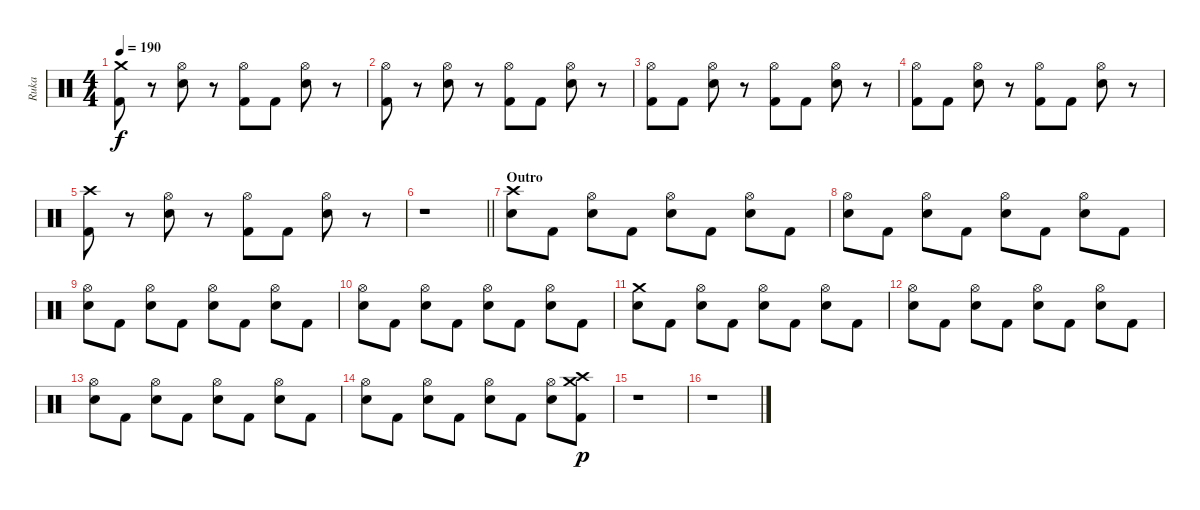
\track ("Ruka " "Ruka ") {instrument percussion}
\staff {score}
\articulation defaults
\ts (4 4)
\tempo 190
\clef neutral
\ks c
("Crash medium (hit)" "Kick (hit) 2").8{dy f} r.8 ("Hi-Hat (open)" "Electric Snare (hit)").8 r.8 ("Hi-Hat (open)" "Kick (hit) 2").8 "Kick (hit) 2".8 ("Hi-Hat (open)" "Electric Snare (hit)").8 r.8 |
("Hi-Hat (open)" "Kick (hit) 2").8 r.8 ("Hi-Hat (open)" "Electric Snare (hit)").8 r.8 ("Hi-Hat (open)" "Kick (hit) 2").8 "Kick (hit) 2".8 ("Hi-Hat (open)" "Electric Snare (hit)").8 r.8 |
("Hi-Hat (open)" "Kick (hit) 2").8 "Kick (hit) 2".8 ("Hi-Hat (open)" "Electric Snare (hit)").8 r.8 ("Hi-Hat (open)" "Kick (hit) 2").8 "Kick (hit) 2".8 ("Hi-Hat (open)" "Electric Snare (hit)").8 r.8 |
("Hi-Hat (open)" "Kick (hit) 2").8 "Kick (hit) 2".8 ("Hi-Hat (open)" "Electric Snare (hit)").8 r.8 ("Hi-Hat (open)" "Kick (hit) 2").8 "Kick (hit) 2".8 ("Hi-Hat (open)" "Electric Snare (hit)").8 r.8 |
("Crash high (hit)" "Kick (hit) 2").8 r.8 ("Hi-Hat (open)" "Electric Snare (hit)").8 r.8 ("Hi-Hat (open)" "Kick (hit) 2").8 "Kick (hit) 2".8 ("Hi-Hat (open)" "Electric Snare (hit)").8 r.8 |
\barLineRight lightlight
r.1 |
\section ("" "Outro")
("Crash high (hit)" "Electric Snare (hit)").8 "Kick (hit) 2".8 ("Hi-Hat (open)" "Electric Snare (hit)").8 "Kick (hit) 2".8 ("Hi-Hat (open)" "Electric Snare (hit)").8 "Kick (hit) 2".8 ("Hi-Hat (open)" "Electric Snare (hit)").8 "Kick (hit) 2".8 |
("Hi-Hat (open)" "Electric Snare (hit)").8 "Kick (hit) 2".8 ("Hi-Hat (open)" "Electric Snare (hit)").8 "Kick (hit) 2".8 ("Hi-Hat (open)" "Electric Snare (hit)").8 "Kick (hit) 2".8 ("Hi-Hat (open)" "Electric Snare (hit)").8 "Kick (hit) 2".8 |
("Hi-Hat (open)" "Electric Snare (hit)").8 "Kick (hit) 2".8 ("Hi-Hat (open)" "Electric Snare (hit)").8 "Kick (hit) 2".8 ("Hi-Hat (open)" "Electric Snare (hit)").8 "Kick (hit) 2".8 ("Hi-Hat (open)" "Electric Snare (hit)").8 "Kick (hit) 2".8 |
("Hi-Hat (open)" "Electric Snare (hit)").8 "Kick (hit) 2".8 ("Hi-Hat (open)" "Electric Snare (hit)").8 "Kick (hit) 2".8 ("Hi-Hat (open)" "Electric Snare (hit)").8 "Kick (hit) 2".8 ("Hi-Hat (open)" "Electric Snare (hit)").8 "Kick (hit) 2".8 |
("Crash medium (hit)" "Electric Snare (hit)").8 "Kick (hit) 2".8 ("Hi-Hat (open)" "Electric Snare (hit)").8 "Kick (hit) 2".8 ("Hi-Hat (open)" "Electric Snare (hit)").8 "Kick (hit) 2".8 ("Hi-Hat (open)" "Electric Snare (hit)").8 "Kick (hit) 2".8 |
("Hi-Hat (open)" "Electric Snare (hit)").8 "Kick (hit) 2".8 ("Hi-Hat (open)" "Electric Snare (hit)").8 "Kick (hit) 2".8 ("Hi-Hat (open)" "Electric Snare (hit)").8 "Kick (hit) 2".8 ("Hi-Hat (open)" "Electric Snare (hit)").8 "Kick (hit) 2".8 |
("Hi-Hat (open)" "Electric Snare (hit)").8 "Kick (hit) 2".8 ("Hi-Hat (open)" "Electric Snare (hit)").8 "Kick (hit) 2".8 ("Hi-Hat (open)" "Electric Snare (hit)").8 "Kick (hit) 2".8 ("Hi-Hat (open)" "Electric Snare (hit)").8 "Kick (hit) 2".8 |
("Hi-Hat (open)" "Electric Snare (hit)").8 "Kick (hit) 2".8 ("Hi-Hat (open)" "Electric Snare (hit)").8 "Kick (hit) 2".8 ("Hi-Hat (open)" "Electric Snare (hit)").8 "Kick (hit) 2".8 ("Hi-Hat (open)" "Electric Snare (hit)").8 ("Crash medium (hit)" "Crash high (hit)" "Kick (hit) 2").8{dy p} |
r.1 |
r.1
